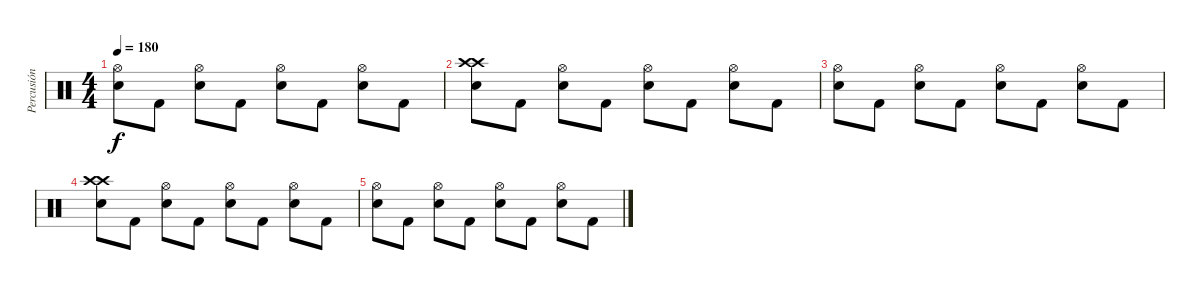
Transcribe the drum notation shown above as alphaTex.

\track ("Percusión" "Percusión") {instrument percussion}
\staff {score}
\articulation defaults
\ts (4 4)
\tempo 180
\clef neutral
\ks c
("Hi-Hat (open)" "Snare (hit) 2").8{dy f} "Kick (hit) 2".8 ("Hi-Hat (open)" "Snare (hit) 2").8 "Kick (hit) 2".8 ("Hi-Hat (open)" "Snare (hit) 2").8 "Kick (hit) 2".8 ("Hi-Hat (open)" "Snare (hit) 2").8 "Kick (hit) 2".8 |
("Crash high (hit)" "Crash high (hit)" "Snare (hit) 2").8 "Kick (hit) 2".8 ("Hi-Hat (open)" "Snare (hit) 2").8 "Kick (hit) 2".8 ("Hi-Hat (open)" "Snare (hit) 2").8 "Kick (hit) 2".8 ("Hi-Hat (open)" "Snare (hit) 2").8 "Kick (hit) 2".8 |
("Hi-Hat (open)" "Snare (hit) 2").8 "Kick (hit) 2".8 ("Hi-Hat (open)" "Snare (hit) 2").8 "Kick (hit) 2".8 ("Hi-Hat (open)" "Snare (hit) 2").8 "Kick (hit) 2".8 ("Hi-Hat (open)" "Snare (hit) 2").8 "Kick (hit) 2".8 |
("Crash high (hit)" "Crash high (hit)" "Snare (hit) 2").8 "Kick (hit) 2".8 ("Hi-Hat (open)" "Snare (hit) 2").8 "Kick (hit) 2".8 ("Hi-Hat (open)" "Snare (hit) 2").8 "Kick (hit) 2".8 ("Hi-Hat (open)" "Snare (hit) 2").8 "Kick (hit) 2".8 |
("Hi-Hat (open)" "Snare (hit) 2").8 "Kick (hit) 2".8 ("Hi-Hat (open)" "Snare (hit) 2").8 "Kick (hit) 2".8 ("Hi-Hat (open)" "Snare (hit) 2").8 "Kick (hit) 2".8 ("Hi-Hat (open)" "Snare (hit) 2").8 "Kick (hit) 2".8
